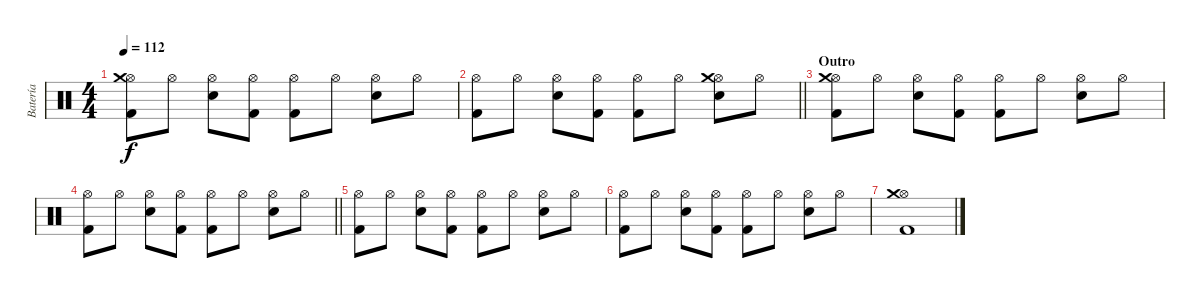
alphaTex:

\track ("Batería" "Batería") {instrument percussion}
\staff {score}
\articulation defaults
\ts (4 4)
\tempo 112
\clef neutral
\ks c
("Hi-Hat (open)" "Kick (hit) 2" "Crash medium (hit)").8{dy f} "Hi-Hat (open)".8 ("Hi-Hat (open)" "Electric Snare (hit)").8 ("Hi-Hat (open)" "Kick (hit) 2").8 ("Hi-Hat (open)" "Kick (hit) 2").8 "Hi-Hat (open)".8 ("Hi-Hat (open)" "Electric Snare (hit)").8 "Hi-Hat (open)".8 |
\barLineRight lightlight
("Hi-Hat (open)" "Kick (hit) 2").8 "Hi-Hat (open)".8 ("Hi-Hat (open)" "Electric Snare (hit)").8 ("Hi-Hat (open)" "Kick (hit) 2").8 ("Hi-Hat (open)" "Kick (hit) 2").8 "Hi-Hat (open)".8 ("Hi-Hat (open)" "Electric Snare (hit)" "Crash medium (hit)").8 "Hi-Hat (open)".8 |
\section ("" "Outro")
("Hi-Hat (open)" "Kick (hit) 2" "Crash medium (hit)").8 "Hi-Hat (open)".8 ("Hi-Hat (open)" "Electric Snare (hit)").8 ("Hi-Hat (open)" "Kick (hit) 2").8 ("Hi-Hat (open)" "Kick (hit) 2").8 "Hi-Hat (open)".8 ("Hi-Hat (open)" "Electric Snare (hit)").8 "Hi-Hat (open)".8 |
\barLineRight lightlight
("Hi-Hat (open)" "Kick (hit) 2").8 "Hi-Hat (open)".8 ("Hi-Hat (open)" "Electric Snare (hit)").8 ("Hi-Hat (open)" "Kick (hit) 2").8 ("Hi-Hat (open)" "Kick (hit) 2").8 "Hi-Hat (open)".8 ("Hi-Hat (open)" "Electric Snare (hit)").8 "Hi-Hat (open)".8 |
("Hi-Hat (open)" "Kick (hit) 2").8 "Hi-Hat (open)".8 ("Hi-Hat (open)" "Electric Snare (hit)").8 ("Hi-Hat (open)" "Kick (hit) 2").8 ("Hi-Hat (open)" "Kick (hit) 2").8 "Hi-Hat (open)".8 ("Hi-Hat (open)" "Electric Snare (hit)").8 "Hi-Hat (open)".8 |
("Hi-Hat (open)" "Kick (hit) 2").8 "Hi-Hat (open)".8 ("Hi-Hat (open)" "Electric Snare (hit)").8 ("Hi-Hat (open)" "Kick (hit) 2").8 ("Hi-Hat (open)" "Kick (hit) 2").8 "Hi-Hat (open)".8 ("Hi-Hat (open)" "Electric Snare (hit)").8 "Hi-Hat (open)".8 |
("Hi-Hat (open)" "Kick (hit) 2" "Crash medium (hit)").1
